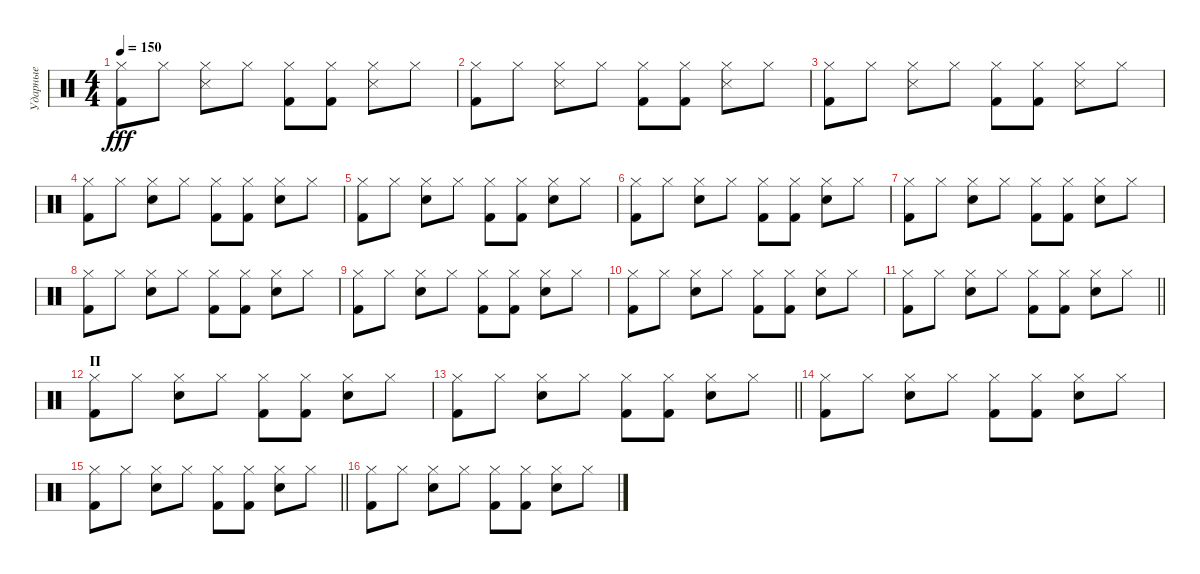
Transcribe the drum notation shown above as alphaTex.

\track ("Ударные" "Ударные") {instrument percussion}
\staff {score}
\articulation defaults
\ts (4 4)
\tempo 150
\clef neutral
\ks c
("Kick (hit) 2" "Hi-Hat (closed)").8{dy fff} "Hi-Hat (closed)".8 ("Hi-Hat (closed)" "Snare (side stick) 3").8 "Hi-Hat (closed)".8 ("Kick (hit) 2" "Hi-Hat (closed)").8 ("Kick (hit) 2" "Hi-Hat (closed)").8 ("Hi-Hat (closed)" "Snare (side stick) 3").8 "Hi-Hat (closed)".8 |
("Kick (hit) 2" "Hi-Hat (closed)").8 "Hi-Hat (closed)".8 ("Hi-Hat (closed)" "Snare (side stick) 3").8 "Hi-Hat (closed)".8 ("Kick (hit) 2" "Hi-Hat (closed)").8 ("Kick (hit) 2" "Hi-Hat (closed)").8 ("Hi-Hat (closed)" "Snare (side stick) 3").8 "Hi-Hat (closed)".8 |
("Kick (hit) 2" "Hi-Hat (closed)").8 "Hi-Hat (closed)".8 ("Hi-Hat (closed)" "Snare (side stick) 3").8 "Hi-Hat (closed)".8 ("Kick (hit) 2" "Hi-Hat (closed)").8 ("Kick (hit) 2" "Hi-Hat (closed)").8 ("Hi-Hat (closed)" "Snare (side stick) 3").8 "Hi-Hat (closed)".8 |
("Kick (hit) 2" "Hi-Hat (closed)").8 "Hi-Hat (closed)".8 ("Hi-Hat (closed)" "Electric Snare (hit)").8 "Hi-Hat (closed)".8 ("Kick (hit) 2" "Hi-Hat (closed)").8 ("Kick (hit) 2" "Hi-Hat (closed)").8 ("Hi-Hat (closed)" "Electric Snare (hit)").8 "Hi-Hat (closed)".8 |
("Kick (hit) 2" "Hi-Hat (closed)").8 "Hi-Hat (closed)".8 ("Hi-Hat (closed)" "Electric Snare (hit)").8 "Hi-Hat (closed)".8 ("Kick (hit) 2" "Hi-Hat (closed)").8 ("Kick (hit) 2" "Hi-Hat (closed)").8 ("Hi-Hat (closed)" "Electric Snare (hit)").8 "Hi-Hat (closed)".8 |
("Kick (hit) 2" "Hi-Hat (closed)").8 "Hi-Hat (closed)".8 ("Hi-Hat (closed)" "Electric Snare (hit)").8 "Hi-Hat (closed)".8 ("Kick (hit) 2" "Hi-Hat (closed)").8 ("Kick (hit) 2" "Hi-Hat (closed)").8 ("Hi-Hat (closed)" "Electric Snare (hit)").8 "Hi-Hat (closed)".8 |
("Kick (hit) 2" "Hi-Hat (closed)").8 "Hi-Hat (closed)".8 ("Hi-Hat (closed)" "Electric Snare (hit)").8 "Hi-Hat (closed)".8 ("Kick (hit) 2" "Hi-Hat (closed)").8 ("Kick (hit) 2" "Hi-Hat (closed)").8 ("Hi-Hat (closed)" "Electric Snare (hit)").8 "Hi-Hat (closed)".8 |
("Kick (hit) 2" "Hi-Hat (closed)").8 "Hi-Hat (closed)".8 ("Hi-Hat (closed)" "Electric Snare (hit)").8 "Hi-Hat (closed)".8 ("Kick (hit) 2" "Hi-Hat (closed)").8 ("Kick (hit) 2" "Hi-Hat (closed)").8 ("Hi-Hat (closed)" "Electric Snare (hit)").8 "Hi-Hat (closed)".8 |
("Kick (hit) 2" "Hi-Hat (closed)").8 "Hi-Hat (closed)".8 ("Hi-Hat (closed)" "Electric Snare (hit)").8 "Hi-Hat (closed)".8 ("Kick (hit) 2" "Hi-Hat (closed)").8 ("Kick (hit) 2" "Hi-Hat (closed)").8 ("Hi-Hat (closed)" "Electric Snare (hit)").8 "Hi-Hat (closed)".8 |
("Kick (hit) 2" "Hi-Hat (closed)").8 "Hi-Hat (closed)".8 ("Hi-Hat (closed)" "Electric Snare (hit)").8 "Hi-Hat (closed)".8 ("Kick (hit) 2" "Hi-Hat (closed)").8 ("Kick (hit) 2" "Hi-Hat (closed)").8 ("Hi-Hat (closed)" "Electric Snare (hit)").8 "Hi-Hat (closed)".8 |
\barLineRight lightlight
("Kick (hit) 2" "Hi-Hat (closed)").8 "Hi-Hat (closed)".8 ("Hi-Hat (closed)" "Electric Snare (hit)").8 "Hi-Hat (closed)".8 ("Kick (hit) 2" "Hi-Hat (closed)").8 ("Kick (hit) 2" "Hi-Hat (closed)").8 ("Hi-Hat (closed)" "Electric Snare (hit)").8 "Hi-Hat (closed)".8 |
\section ("" "П")
("Kick (hit) 2" "Hi-Hat (closed)").8 "Hi-Hat (closed)".8 ("Hi-Hat (closed)" "Electric Snare (hit)").8 "Hi-Hat (closed)".8 ("Kick (hit) 2" "Hi-Hat (closed)").8 ("Kick (hit) 2" "Hi-Hat (closed)").8 ("Hi-Hat (closed)" "Electric Snare (hit)").8 "Hi-Hat (closed)".8 |
\barLineRight lightlight
("Kick (hit) 2" "Hi-Hat (closed)").8 "Hi-Hat (closed)".8 ("Hi-Hat (closed)" "Electric Snare (hit)").8 "Hi-Hat (closed)".8 ("Kick (hit) 2" "Hi-Hat (closed)").8 ("Kick (hit) 2" "Hi-Hat (closed)").8 ("Hi-Hat (closed)" "Electric Snare (hit)").8 "Hi-Hat (closed)".8 |
("Kick (hit) 2" "Hi-Hat (closed)").8 "Hi-Hat (closed)".8 ("Hi-Hat (closed)" "Electric Snare (hit)").8 "Hi-Hat (closed)".8 ("Kick (hit) 2" "Hi-Hat (closed)").8 ("Kick (hit) 2" "Hi-Hat (closed)").8 ("Hi-Hat (closed)" "Electric Snare (hit)").8 "Hi-Hat (closed)".8 |
\barLineRight lightlight
("Kick (hit) 2" "Hi-Hat (closed)").8 "Hi-Hat (closed)".8 ("Hi-Hat (closed)" "Electric Snare (hit)").8 "Hi-Hat (closed)".8 ("Kick (hit) 2" "Hi-Hat (closed)").8 ("Kick (hit) 2" "Hi-Hat (closed)").8 ("Hi-Hat (closed)" "Electric Snare (hit)").8 "Hi-Hat (closed)".8 |
("Kick (hit) 2" "Hi-Hat (closed)").8 "Hi-Hat (closed)".8 ("Hi-Hat (closed)" "Electric Snare (hit)").8 "Hi-Hat (closed)".8 ("Kick (hit) 2" "Hi-Hat (closed)").8 ("Kick (hit) 2" "Hi-Hat (closed)").8 ("Hi-Hat (closed)" "Electric Snare (hit)").8 "Hi-Hat (closed)".8
